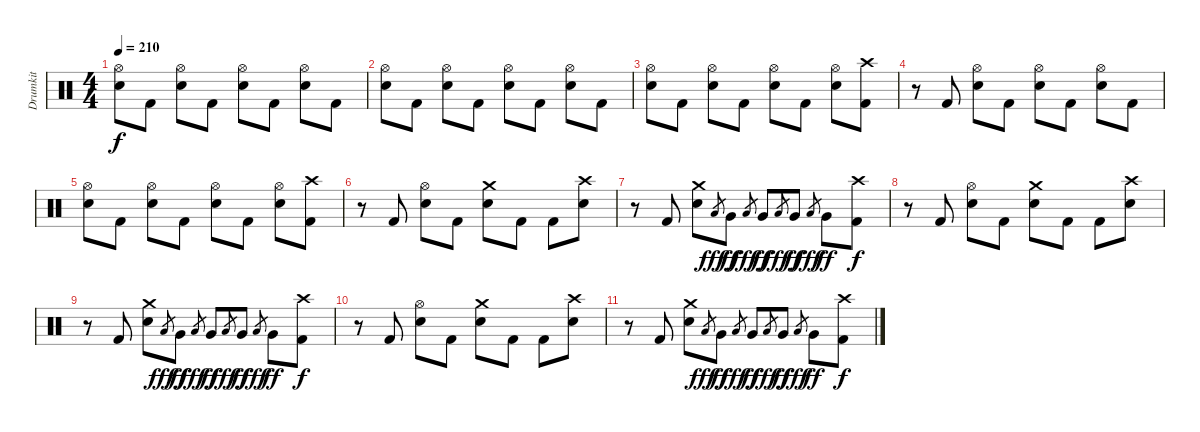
\track ("Drumkit" "Drumkit") {instrument percussion}
\staff {score}
\articulation defaults
\ts (4 4)
\tempo 210
\clef neutral
\ks c
("Hi-Hat (open)" "Electric Snare (hit)").8{dy f} "Kick (hit) 2".8 ("Hi-Hat (open)" "Electric Snare (hit)").8 "Kick (hit) 2".8 ("Hi-Hat (open)" "Electric Snare (hit)").8 "Kick (hit) 2".8 ("Hi-Hat (open)" "Electric Snare (hit)").8 "Kick (hit) 2".8 |
("Hi-Hat (open)" "Electric Snare (hit)").8 "Kick (hit) 2".8 ("Hi-Hat (open)" "Electric Snare (hit)").8 "Kick (hit) 2".8 ("Hi-Hat (open)" "Electric Snare (hit)").8 "Kick (hit) 2".8 ("Hi-Hat (open)" "Electric Snare (hit)").8 "Kick (hit) 2".8 |
("Hi-Hat (open)" "Electric Snare (hit)").8 "Kick (hit) 2".8 ("Hi-Hat (open)" "Electric Snare (hit)").8 "Kick (hit) 2".8 ("Hi-Hat (open)" "Electric Snare (hit)").8 "Kick (hit) 2".8 ("Hi-Hat (open)" "Electric Snare (hit)").8 ("Crash high (hit)" "Kick (hit) 2").8 |
r.8 "Kick (hit) 2".8 ("Hi-Hat (open)" "Electric Snare (hit)").8 "Kick (hit) 2".8 ("Hi-Hat (open)" "Electric Snare (hit)").8 "Kick (hit) 2".8 ("Hi-Hat (open)" "Electric Snare (hit)").8 "Kick (hit) 2".8 |
("Hi-Hat (open)" "Electric Snare (hit)").8 "Kick (hit) 2".8 ("Hi-Hat (open)" "Electric Snare (hit)").8 "Kick (hit) 2".8 ("Hi-Hat (open)" "Electric Snare (hit)").8 "Kick (hit) 2".8 ("Hi-Hat (open)" "Electric Snare (hit)").8 ("Crash high (hit)" "Kick (hit) 2").8 |
r.8 "Kick (hit) 2".8 ("Hi-Hat (open)" "Electric Snare (hit)").8 "Kick (hit) 2".8 ("Crash medium (hit)" "Electric Snare (hit)").8 "Kick (hit) 2".8 "Kick (hit) 2".8 ("Crash high (hit)" "Electric Snare (hit)").8 |
r.8 "Kick (hit) 2".8 ("Crash medium (hit)" "Electric Snare (hit)").8 "Low Floor Tom (hit)".8{gr dy fff} "Very Low Tom (hit)".8{dy ff} "Low Floor Tom (hit)".8{gr dy fff} "Very Low Tom (hit)".8{dy ff} "Low Floor Tom (hit)".8{gr dy fff} "Very Low Tom (hit)".8{dy ff} "Low Floor Tom (hit)".8{gr dy fff} "Very Low Tom (hit)".8{dy ff} ("Crash high (hit)" "Kick (hit) 2").8{dy f} |
r.8 "Kick (hit) 2".8 ("Hi-Hat (open)" "Electric Snare (hit)").8 "Kick (hit) 2".8 ("Crash medium (hit)" "Electric Snare (hit)").8 "Kick (hit) 2".8 "Kick (hit) 2".8 ("Crash high (hit)" "Electric Snare (hit)").8 |
r.8 "Kick (hit) 2".8 ("Crash medium (hit)" "Electric Snare (hit)").8 "Low Floor Tom (hit)".8{gr dy fff} "Very Low Tom (hit)".8{dy ff} "Low Floor Tom (hit)".8{gr dy fff} "Very Low Tom (hit)".8{dy ff} "Low Floor Tom (hit)".8{gr dy fff} "Very Low Tom (hit)".8{dy ff} "Low Floor Tom (hit)".8{gr dy fff} "Very Low Tom (hit)".8{dy ff} ("Crash high (hit)" "Kick (hit) 2").8{dy f} |
r.8 "Kick (hit) 2".8 ("Hi-Hat (open)" "Electric Snare (hit)").8 "Kick (hit) 2".8 ("Crash medium (hit)" "Electric Snare (hit)").8 "Kick (hit) 2".8 "Kick (hit) 2".8 ("Crash high (hit)" "Electric Snare (hit)").8 |
r.8 "Kick (hit) 2".8 ("Crash medium (hit)" "Electric Snare (hit)").8 "Low Floor Tom (hit)".8{gr dy fff} "Very Low Tom (hit)".8{dy ff} "Low Floor Tom (hit)".8{gr dy fff} "Very Low Tom (hit)".8{dy ff} "Low Floor Tom (hit)".8{gr dy fff} "Very Low Tom (hit)".8{dy ff} "Low Floor Tom (hit)".8{gr dy fff} "Very Low Tom (hit)".8{dy ff} ("Crash high (hit)" "Kick (hit) 2").8{dy f}
